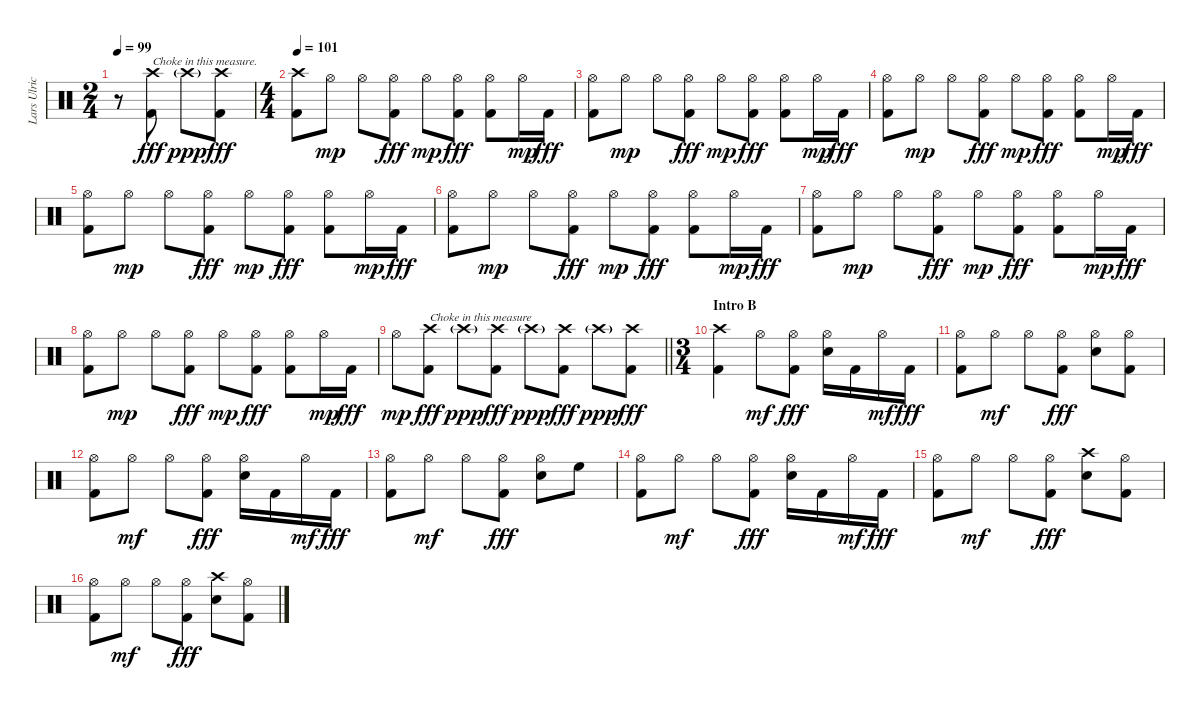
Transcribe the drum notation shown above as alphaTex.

\track ("Lars Ulrich" "Lars Ulric") {instrument percussion}
\staff {score}
\articulation defaults
\ts (2 4)
\tempo 99
\clef neutral
\ks c
r.8{dy fff} ("Crash high (hit)" "Kick (hit) 2").8{txt "Choke in this measure."} "Crash high (hit)"{g}.8{dy ppp} ("Crash high (hit)" "Kick (hit) 2").8{dy fff} |
\ts (4 4)
\tempo 101
("Crash high (hit)" "Kick (hit) 2").8 "Hi-Hat (open)".8{dy mp} "Hi-Hat (open)".8 ("Hi-Hat (open)" "Kick (hit) 2").8{dy fff} "Hi-Hat (open)".8{dy mp} ("Hi-Hat (open)" "Kick (hit) 2").8{dy fff} ("Hi-Hat (open)" "Kick (hit) 2").8 "Hi-Hat (open)".16{dy mp} "Kick (hit) 2".16{dy fff} |
("Hi-Hat (open)" "Kick (hit) 2").8 "Hi-Hat (open)".8{dy mp} "Hi-Hat (open)".8 ("Hi-Hat (open)" "Kick (hit) 2").8{dy fff} "Hi-Hat (open)".8{dy mp} ("Hi-Hat (open)" "Kick (hit) 2").8{dy fff} ("Hi-Hat (open)" "Kick (hit) 2").8 "Hi-Hat (open)".16{dy mp} "Kick (hit) 2".16{dy fff} |
("Hi-Hat (open)" "Kick (hit) 2").8 "Hi-Hat (open)".8{dy mp} "Hi-Hat (open)".8 ("Hi-Hat (open)" "Kick (hit) 2").8{dy fff} "Hi-Hat (open)".8{dy mp} ("Hi-Hat (open)" "Kick (hit) 2").8{dy fff} ("Hi-Hat (open)" "Kick (hit) 2").8 "Hi-Hat (open)".16{dy mp} "Kick (hit) 2".16{dy fff} |
("Hi-Hat (open)" "Kick (hit) 2").8 "Hi-Hat (open)".8{dy mp} "Hi-Hat (open)".8 ("Hi-Hat (open)" "Kick (hit) 2").8{dy fff} "Hi-Hat (open)".8{dy mp} ("Hi-Hat (open)" "Kick (hit) 2").8{dy fff} ("Hi-Hat (open)" "Kick (hit) 2").8 "Hi-Hat (open)".16{dy mp} "Kick (hit) 2".16{dy fff} |
("Hi-Hat (open)" "Kick (hit) 2").8 "Hi-Hat (open)".8{dy mp} "Hi-Hat (open)".8 ("Hi-Hat (open)" "Kick (hit) 2").8{dy fff} "Hi-Hat (open)".8{dy mp} ("Hi-Hat (open)" "Kick (hit) 2").8{dy fff} ("Hi-Hat (open)" "Kick (hit) 2").8 "Hi-Hat (open)".16{dy mp} "Kick (hit) 2".16{dy fff} |
("Hi-Hat (open)" "Kick (hit) 2").8 "Hi-Hat (open)".8{dy mp} "Hi-Hat (open)".8 ("Hi-Hat (open)" "Kick (hit) 2").8{dy fff} "Hi-Hat (open)".8{dy mp} ("Hi-Hat (open)" "Kick (hit) 2").8{dy fff} ("Hi-Hat (open)" "Kick (hit) 2").8 "Hi-Hat (open)".16{dy mp} "Kick (hit) 2".16{dy fff} |
("Hi-Hat (open)" "Kick (hit) 2").8 "Hi-Hat (open)".8{dy mp} "Hi-Hat (open)".8 ("Hi-Hat (open)" "Kick (hit) 2").8{dy fff} "Hi-Hat (open)".8{dy mp} ("Hi-Hat (open)" "Kick (hit) 2").8{dy fff} ("Hi-Hat (open)" "Kick (hit) 2").8 "Hi-Hat (open)".16{dy mp} "Kick (hit) 2".16{dy fff} |
\barLineRight lightlight "Hi-Hat (open)".8{dy mp}
("Crash high (hit)" "Kick (hit) 2").8{txt "Choke in this measure" dy fff} "Crash high (hit)"{g}.8{dy ppp} ("Crash high (hit)" "Kick (hit) 2").8{dy fff} "Crash high (hit)"{g}.8{dy ppp} ("Crash high (hit)" "Kick (hit) 2").8{dy fff} "Crash high (hit)"{g}.8{dy ppp} ("Crash high (hit)" "Kick (hit) 2").8{dy fff} |
\ts (3 4)
\section ("" "Intro B")
("Crash high (hit)" "Kick (hit) 2").4 "Hi-Hat (open)".8{dy mf} ("Hi-Hat (open)" "Kick (hit) 2").8{dy fff} ("Hi-Hat (open)" "Electric Snare (hit)").16 "Kick (hit) 2".16 "Hi-Hat (open)".16{dy mf} "Kick (hit) 2".16{dy fff} |
("Hi-Hat (open)" "Kick (hit) 2").8 "Hi-Hat (open)".8{dy mf} "Hi-Hat (open)".8 ("Hi-Hat (open)" "Kick (hit) 2").8{dy fff} ("Hi-Hat (open)" "Electric Snare (hit)").8 ("Hi-Hat (open)" "Kick (hit) 2").8 |
("Hi-Hat (open)" "Kick (hit) 2").8 "Hi-Hat (open)".8{dy mf} "Hi-Hat (open)".8 ("Hi-Hat (open)" "Kick (hit) 2").8{dy fff} ("Hi-Hat (open)" "Electric Snare (hit)").16 "Kick (hit) 2".16 "Hi-Hat (open)".16{dy mf} "Kick (hit) 2".16{dy fff} |
("Hi-Hat (open)" "Kick (hit) 2").8 "Hi-Hat (open)".8{dy mf} "Hi-Hat (open)".8 ("Hi-Hat (open)" "Kick (hit) 2").8{dy fff} ("Hi-Hat (open)" "Electric Snare (hit)").8 "High Floor Tom (hit)".8 |
("Hi-Hat (open)" "Kick (hit) 2").8 "Hi-Hat (open)".8{dy mf} "Hi-Hat (open)".8 ("Hi-Hat (open)" "Kick (hit) 2").8{dy fff} ("Hi-Hat (open)" "Electric Snare (hit)").16 "Kick (hit) 2".16 "Hi-Hat (open)".16{dy mf} "Kick (hit) 2".16{dy fff} |
("Hi-Hat (open)" "Kick (hit) 2").8 "Hi-Hat (open)".8{dy mf} "Hi-Hat (open)".8 ("Hi-Hat (open)" "Kick (hit) 2").8{dy fff} ("Crash high (hit)" "Electric Snare (hit)").8 ("Hi-Hat (open)" "Kick (hit) 2").8 |
("Hi-Hat (open)" "Kick (hit) 2").8 "Hi-Hat (open)".8{dy mf} "Hi-Hat (open)".8 ("Hi-Hat (open)" "Kick (hit) 2").8{dy fff} ("Crash high (hit)" "Electric Snare (hit)").8 ("Hi-Hat (open)" "Kick (hit) 2").8
